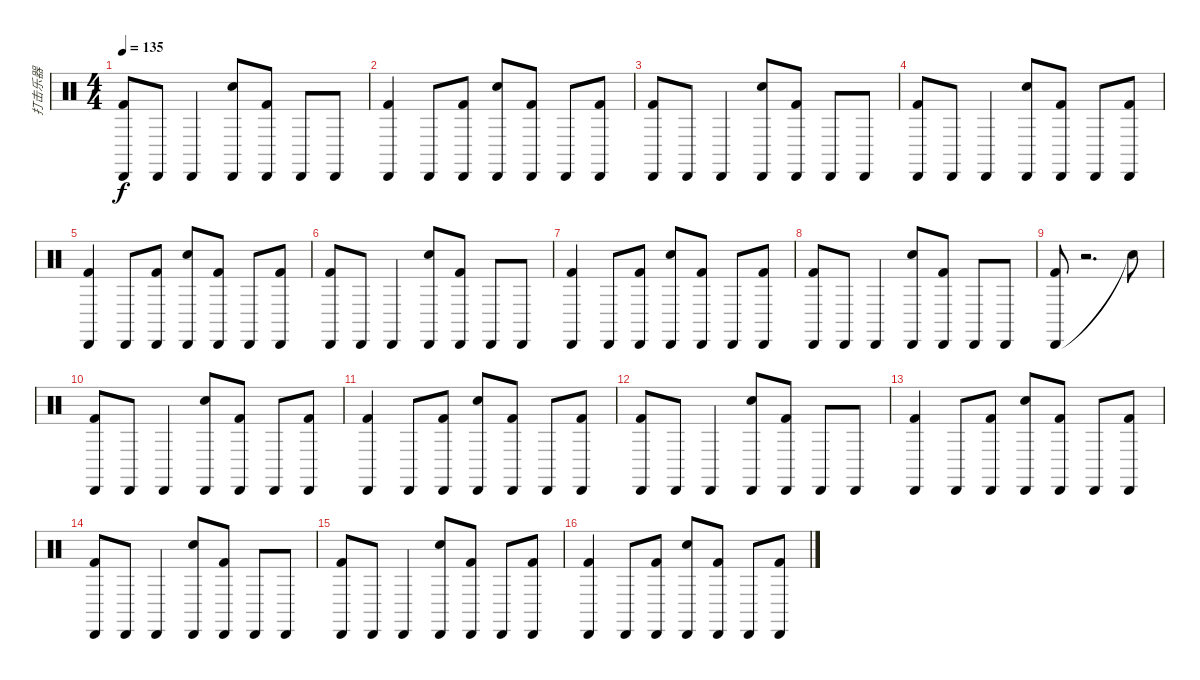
\track ("打击乐器" "打击乐器") {instrument percussion}
\staff {score}
\articulation defaults
\ts (4 4)
\tempo 135
\clef neutral
\ks c
("Cabasa (hit)" "Kick (hit) 2").8{dy f} "Cabasa (hit)".8 "Cabasa (hit)".4 ("Snare (hit) 2" "Cabasa (hit)").8 ("Cabasa (hit)" "Kick (hit) 2").8 "Cabasa (hit)".8 "Cabasa (hit)".8 |
("Cabasa (hit)" "Kick (hit) 2").4 "Cabasa (hit)".8 ("Cabasa (hit)" "Kick (hit) 2").8 ("Snare (hit) 2" "Cabasa (hit)").8 ("Cabasa (hit)" "Kick (hit) 2").8 "Cabasa (hit)".8 ("Cabasa (hit)" "Kick (hit) 2").8 |
("Cabasa (hit)" "Kick (hit) 2").8 "Cabasa (hit)".8 "Cabasa (hit)".4 ("Snare (hit) 2" "Cabasa (hit)").8 ("Cabasa (hit)" "Kick (hit) 2").8 "Cabasa (hit)".8 "Cabasa (hit)".8 |
("Cabasa (hit)" "Kick (hit) 2").8 "Cabasa (hit)".8 "Cabasa (hit)".4 ("Snare (hit) 2" "Cabasa (hit)").8 ("Cabasa (hit)" "Kick (hit) 2").8 "Cabasa (hit)".8 ("Cabasa (hit)" "Kick (hit) 2").8 |
("Cabasa (hit)" "Kick (hit) 2").4 "Cabasa (hit)".8 ("Cabasa (hit)" "Kick (hit) 2").8 ("Snare (hit) 2" "Cabasa (hit)").8 ("Cabasa (hit)" "Kick (hit) 2").8 "Cabasa (hit)".8 ("Cabasa (hit)" "Kick (hit) 2").8 |
("Cabasa (hit)" "Kick (hit) 2").8 "Cabasa (hit)".8 "Cabasa (hit)".4 ("Snare (hit) 2" "Cabasa (hit)").8 ("Cabasa (hit)" "Kick (hit) 2").8 "Cabasa (hit)".8 "Cabasa (hit)".8 |
("Cabasa (hit)" "Kick (hit) 2").4 "Cabasa (hit)".8 ("Cabasa (hit)" "Kick (hit) 2").8 ("Snare (hit) 2" "Cabasa (hit)").8 ("Cabasa (hit)" "Kick (hit) 2").8 "Cabasa (hit)".8 ("Cabasa (hit)" "Kick (hit) 2").8 |
("Cabasa (hit)" "Kick (hit) 2").8 "Cabasa (hit)".8 "Cabasa (hit)".4 ("Snare (hit) 2" "Cabasa (hit)").8 ("Cabasa (hit)" "Kick (hit) 2").8 "Cabasa (hit)".8 "Cabasa (hit)".8 |
("Cabasa (hit)" "Kick (hit) 2").8 r.2{d} "Snare (hit)"{t}.8 |
("Cabasa (hit)" "Kick (hit) 2").8 "Cabasa (hit)".8 "Cabasa (hit)".4 ("Snare (hit) 2" "Cabasa (hit)").8 ("Cabasa (hit)" "Kick (hit) 2").8 "Cabasa (hit)".8 ("Cabasa (hit)" "Kick (hit) 2").8 |
("Cabasa (hit)" "Kick (hit) 2").4 "Cabasa (hit)".8 ("Cabasa (hit)" "Kick (hit) 2").8 ("Snare (hit) 2" "Cabasa (hit)").8 ("Cabasa (hit)" "Kick (hit) 2").8 "Cabasa (hit)".8 ("Cabasa (hit)" "Kick (hit) 2").8 |
("Cabasa (hit)" "Kick (hit) 2").8 "Cabasa (hit)".8 "Cabasa (hit)".4 ("Snare (hit) 2" "Cabasa (hit)").8 ("Cabasa (hit)" "Kick (hit) 2").8 "Cabasa (hit)".8 "Cabasa (hit)".8 |
("Cabasa (hit)" "Kick (hit) 2").4 "Cabasa (hit)".8 ("Cabasa (hit)" "Kick (hit) 2").8 ("Snare (hit) 2" "Cabasa (hit)").8 ("Cabasa (hit)" "Kick (hit) 2").8 "Cabasa (hit)".8 ("Cabasa (hit)" "Kick (hit) 2").8 |
("Cabasa (hit)" "Kick (hit) 2").8 "Cabasa (hit)".8 "Cabasa (hit)".4 ("Snare (hit) 2" "Cabasa (hit)").8 ("Cabasa (hit)" "Kick (hit) 2").8 "Cabasa (hit)".8 "Cabasa (hit)".8 |
("Cabasa (hit)" "Kick (hit) 2").8 "Cabasa (hit)".8 "Cabasa (hit)".4 ("Snare (hit) 2" "Cabasa (hit)").8 ("Cabasa (hit)" "Kick (hit) 2").8 "Cabasa (hit)".8 ("Cabasa (hit)" "Kick (hit) 2").8 |
("Cabasa (hit)" "Kick (hit) 2").4 "Cabasa (hit)".8 ("Cabasa (hit)" "Kick (hit) 2").8 ("Snare (hit) 2" "Cabasa (hit)").8 ("Cabasa (hit)" "Kick (hit) 2").8 "Cabasa (hit)".8 ("Cabasa (hit)" "Kick (hit) 2").8
